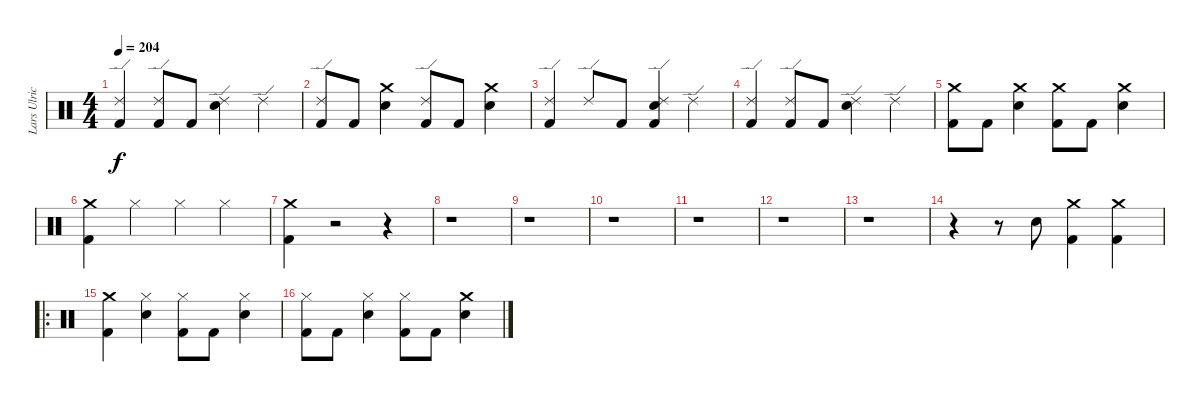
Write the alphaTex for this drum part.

\track ("Lars Ulrich (Drums)" "Lars Ulric") {instrument percussion}
\staff {score}
\articulation defaults
\ts (4 4)
\tempo 204
\clef neutral
\ks c
("Kick (hit) 2" "Ride (edge) 2").4{dy f} ("Kick (hit) 2" "Ride (edge) 2").8 "Kick (hit) 2".8 ("Ride (edge) 2" "Snare (hit) 2").4 "Ride (edge) 2".4 |
("Ride (edge) 2" "Kick (hit) 2").8 "Kick (hit) 2".8 ("Snare (hit) 2" "Crash medium (hit)").4 ("Ride (edge) 2" "Kick (hit) 2").8 "Kick (hit) 2".8 ("Snare (hit) 2" "Crash medium (hit)").4 |
("Ride (edge) 2" "Kick (hit) 2").4 "Ride (edge) 2".8 "Kick (hit) 2".8 ("Ride (edge) 2" "Snare (hit) 2" "Kick (hit) 2").4 "Ride (edge) 2".4 |
("Kick (hit) 2" "Ride (edge) 2").4 ("Ride (edge) 2" "Kick (hit) 2").8 "Kick (hit) 2".8 ("Snare (hit) 2" "Ride (edge) 2").4 "Ride (edge) 2".4 |
("Kick (hit) 2" "Crash medium (hit)").8 "Kick (hit) 2".8 ("Snare (hit) 2" "Crash medium (hit)").4 ("Kick (hit) 2" "Crash medium (hit)").8 "Kick (hit) 2".8 ("Snare (hit) 2" "Crash medium (hit)").4 |
("Kick (hit) 2" "Crash medium (hit)").4 "Hi-Hat (closed)".4 "Hi-Hat (closed)".4 "Hi-Hat (closed)".4 |
("Kick (hit) 2" "Crash medium (hit)").4 r.2 r.4 |
r.1 |
r.1 |
r.1 |
r.1 |
r.1 |
r.1 |
r.4 r.8 "Snare (hit) 2".8 ("Kick (hit) 2" "Crash medium (hit)").4 ("Kick (hit) 2" "Crash medium (hit)").4 |
\ro
("Kick (hit) 2" "Crash medium (hit)").4 ("Hi-Hat (closed)" "Snare (hit) 2").4 ("Kick (hit) 2" "Hi-Hat (closed)").8 "Kick (hit) 2".8 ("Snare (hit) 2" "Hi-Hat (closed)").4 |
("Hi-Hat (closed)" "Kick (hit) 2").8 "Kick (hit) 2".8 ("Snare (hit) 2" "Hi-Hat (closed)").4 ("Hi-Hat (closed)" "Kick (hit) 2").8 "Kick (hit) 2".8 ("Crash medium (hit)" "Snare (hit) 2").4
